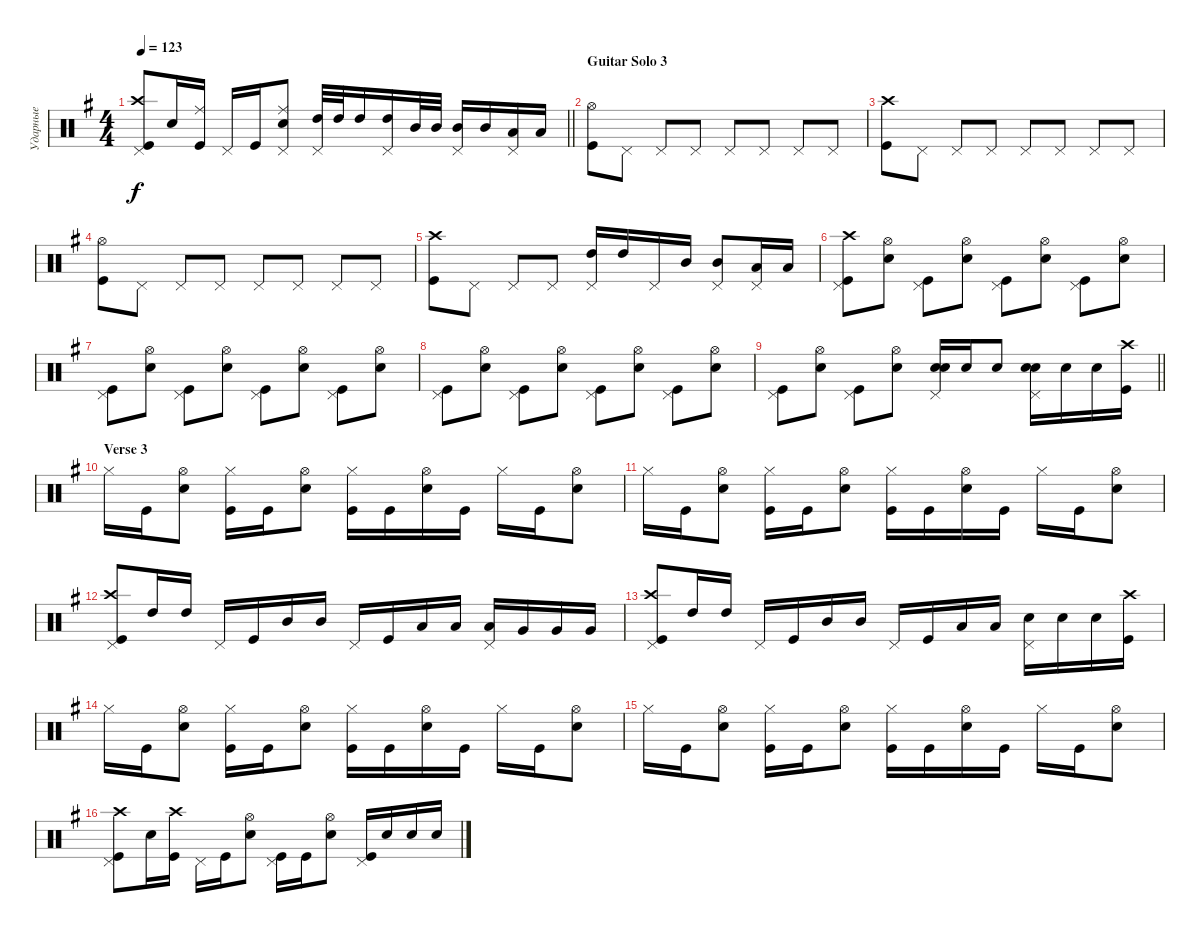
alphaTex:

\track ("Ударные" "Ударные") {instrument percussion}
\staff {score}
\articulation defaults
\ts (4 4)
\tempo 123
\clef neutral
\barLineRight lightlight
\ks eminor
("Kick (hit)" "Crash high (hit)" "Pedal Hi-Hat (hit)").8{dy f} "Snare (hit) 2".16 ("Kick (hit)" "Ride (middle)").16 "Pedal Hi-Hat (hit)".16 "Kick (hit)".16 ("Snare (hit) 2" "Ride (middle)" "Pedal Hi-Hat (hit)").8 ("High Tom (hit)" "Pedal Hi-Hat (hit)").32 "High Tom (hit)".32 "High Tom (hit)".16 ("High Tom (hit)" "Pedal Hi-Hat (hit)").16 "Mid Tom (hit)".32 "Mid Tom (hit)".32 ("Mid Tom (hit)" "Pedal Hi-Hat (hit)").16 "Mid Tom (hit)".16 ("Low Tom (hit)" "Pedal Hi-Hat (hit)").16 "Low Tom (hit)".16 |
\section ("" "Guitar Solo 3")
("Kick (hit)" "Hi-Hat (open)").8 "Pedal Hi-Hat (hit)".8 "Pedal Hi-Hat (hit)".8 "Pedal Hi-Hat (hit)".8 "Pedal Hi-Hat (hit)".8 "Pedal Hi-Hat (hit)".8 "Pedal Hi-Hat (hit)".8 "Pedal Hi-Hat (hit)".8 |
("Kick (hit)" "Crash high (hit)").8 "Pedal Hi-Hat (hit)".8 "Pedal Hi-Hat (hit)".8 "Pedal Hi-Hat (hit)".8 "Pedal Hi-Hat (hit)".8 "Pedal Hi-Hat (hit)".8 "Pedal Hi-Hat (hit)".8 "Pedal Hi-Hat (hit)".8 |
("Kick (hit)" "Hi-Hat (open)").8 "Pedal Hi-Hat (hit)".8 "Pedal Hi-Hat (hit)".8 "Pedal Hi-Hat (hit)".8 "Pedal Hi-Hat (hit)".8 "Pedal Hi-Hat (hit)".8 "Pedal Hi-Hat (hit)".8 "Pedal Hi-Hat (hit)".8 |
("Kick (hit)" "Crash high (hit)").8 "Pedal Hi-Hat (hit)".8 "Pedal Hi-Hat (hit)".8 "Pedal Hi-Hat (hit)".8 ("Pedal Hi-Hat (hit)" "High Tom (hit)").16 "High Tom (hit)".16 "Pedal Hi-Hat (hit)".16 "Mid Tom (hit)".16 ("Pedal Hi-Hat (hit)" "Mid Tom (hit)").8 ("Pedal Hi-Hat (hit)" "Low Tom (hit)").16 "Low Tom (hit)".16 |
("Kick (hit)" "Crash high (hit)" "Pedal Hi-Hat (hit)").8 ("Hi-Hat (open)" "Snare (hit) 2").8 ("Pedal Hi-Hat (hit)" "Kick (hit)").8 ("Hi-Hat (open)" "Snare (hit) 2").8 ("Kick (hit)" "Pedal Hi-Hat (hit)").8 ("Snare (hit) 2" "Hi-Hat (open)").8 ("Kick (hit)" "Pedal Hi-Hat (hit)").8 ("Hi-Hat (open)" "Snare (hit) 2").8 |
("Kick (hit)" "Pedal Hi-Hat (hit)").8 ("Hi-Hat (open)" "Snare (hit) 2").8 ("Pedal Hi-Hat (hit)" "Kick (hit)").8 ("Hi-Hat (open)" "Snare (hit) 2").8 ("Kick (hit)" "Pedal Hi-Hat (hit)").8 ("Snare (hit) 2" "Hi-Hat (open)").8 ("Kick (hit)" "Pedal Hi-Hat (hit)").8 ("Hi-Hat (open)" "Snare (hit) 2").8 |
("Kick (hit)" "Pedal Hi-Hat (hit)").8 ("Hi-Hat (open)" "Snare (hit) 2").8 ("Pedal Hi-Hat (hit)" "Kick (hit)").8 ("Hi-Hat (open)" "Snare (hit) 2").8 ("Kick (hit)" "Pedal Hi-Hat (hit)").8 ("Snare (hit) 2" "Hi-Hat (open)").8 ("Kick (hit)" "Pedal Hi-Hat (hit)").8 ("Hi-Hat (open)" "Snare (hit) 2").8 |
\barLineRight lightlight
("Kick (hit)" "Pedal Hi-Hat (hit)").8 ("Hi-Hat (open)" "Snare (hit) 2").8 ("Pedal Hi-Hat (hit)" "Kick (hit)").8 ("Hi-Hat (open)" "Snare (hit) 2").8 ("Snare (hit) 2" "Snare (hit) 2" "Pedal Hi-Hat (hit)").16{bd 480} "Snare (hit) 2".16 "Snare (hit) 2".8 ("Snare (hit) 2" "Snare (hit) 2" "Pedal Hi-Hat (hit)").16{bd 480} "Snare (hit) 2".16 "Snare (hit) 2".16 ("Kick (hit)" "Crash high (hit)").16 |
\section ("" "Verse 3")
"Hi-Hat (closed)".16 "Kick (hit)".16 ("Snare (hit) 2" "Hi-Hat (open)").8 ("Kick (hit)" "Hi-Hat (closed)").16 "Kick (hit)".16 ("Snare (hit) 2" "Hi-Hat (open)").8 ("Hi-Hat (closed)" "Kick (hit)").16 "Kick (hit)".16 ("Snare (hit) 2" "Hi-Hat (open)").16 "Kick (hit)".16 "Hi-Hat (closed)".16 "Kick (hit)".16 ("Snare (hit) 2" "Hi-Hat (open)").8 |
"Hi-Hat (closed)".16 "Kick (hit)".16 ("Snare (hit) 2" "Hi-Hat (open)").8 ("Kick (hit)" "Hi-Hat (closed)").16 "Kick (hit)".16 ("Snare (hit) 2" "Hi-Hat (open)").8 ("Hi-Hat (closed)" "Kick (hit)").16 "Kick (hit)".16 ("Snare (hit) 2" "Hi-Hat (open)").16 "Kick (hit)".16 "Hi-Hat (closed)".16 "Kick (hit)".16 ("Snare (hit) 2" "Hi-Hat (open)").8 |
("Kick (hit)" "Crash high (hit)" "Pedal Hi-Hat (hit)").8 "High Tom (hit)".16 "High Tom (hit)".16 "Pedal Hi-Hat (hit)".16 "Kick (hit)".16 "Mid Tom (hit)".16 "Mid Tom (hit)".16 "Pedal Hi-Hat (hit)".16 "Kick (hit)".16 "Low Tom (hit)".16 "Low Tom (hit)".16 ("Low Tom (hit)" "Pedal Hi-Hat (hit)").16 "Very Low Tom (hit)".16 "Very Low Tom (hit)".16 "Very Low Tom (hit)".16 |
("Kick (hit)" "Crash high (hit)" "Pedal Hi-Hat (hit)").8 "High Tom (hit)".16 "High Tom (hit)".16 "Pedal Hi-Hat (hit)".16 "Kick (hit)".16 "Mid Tom (hit)".16 "Mid Tom (hit)".16 "Pedal Hi-Hat (hit)".16 "Kick (hit)".16 "Low Tom (hit)".16 "Low Tom (hit)".16 ("Snare (hit) 2" "Pedal Hi-Hat (hit)").16 "Snare (hit) 2".16 "Snare (hit) 2".16 ("Kick (hit)" "Crash high (hit)").16 |
"Hi-Hat (closed)".16 "Kick (hit)".16 ("Snare (hit) 2" "Hi-Hat (open)").8 ("Kick (hit)" "Hi-Hat (closed)").16 "Kick (hit)".16 ("Snare (hit) 2" "Hi-Hat (open)").8 ("Hi-Hat (closed)" "Kick (hit)").16 "Kick (hit)".16 ("Snare (hit) 2" "Hi-Hat (open)").16 "Kick (hit)".16 "Hi-Hat (closed)".16 "Kick (hit)".16 ("Snare (hit) 2" "Hi-Hat (open)").8 |
"Hi-Hat (closed)".16 "Kick (hit)".16 ("Snare (hit) 2" "Hi-Hat (open)").8 ("Kick (hit)" "Hi-Hat (closed)").16 "Kick (hit)".16 ("Snare (hit) 2" "Hi-Hat (open)").8 ("Hi-Hat (closed)" "Kick (hit)").16 "Kick (hit)".16 ("Snare (hit) 2" "Hi-Hat (open)").16 "Kick (hit)".16 "Hi-Hat (closed)".16 "Kick (hit)".16 ("Snare (hit) 2" "Hi-Hat (open)").8 |
("Kick (hit)" "Crash high (hit)" "Pedal Hi-Hat (hit)").8 "Snare (hit) 2".16 ("Kick (hit)" "Crash high (hit)").16 "Pedal Hi-Hat (hit)".16 "Kick (hit)".16 ("Snare (hit) 2" "Hi-Hat (open)").8 ("Kick (hit)" "Pedal Hi-Hat (hit)").16 "Kick (hit)".16 ("Snare (hit) 2" "Hi-Hat (open)").8 ("Kick (hit)" "Pedal Hi-Hat (hit)").16 "Snare (hit) 2".16 "Snare (hit) 2".16 "Snare (hit) 2".16
